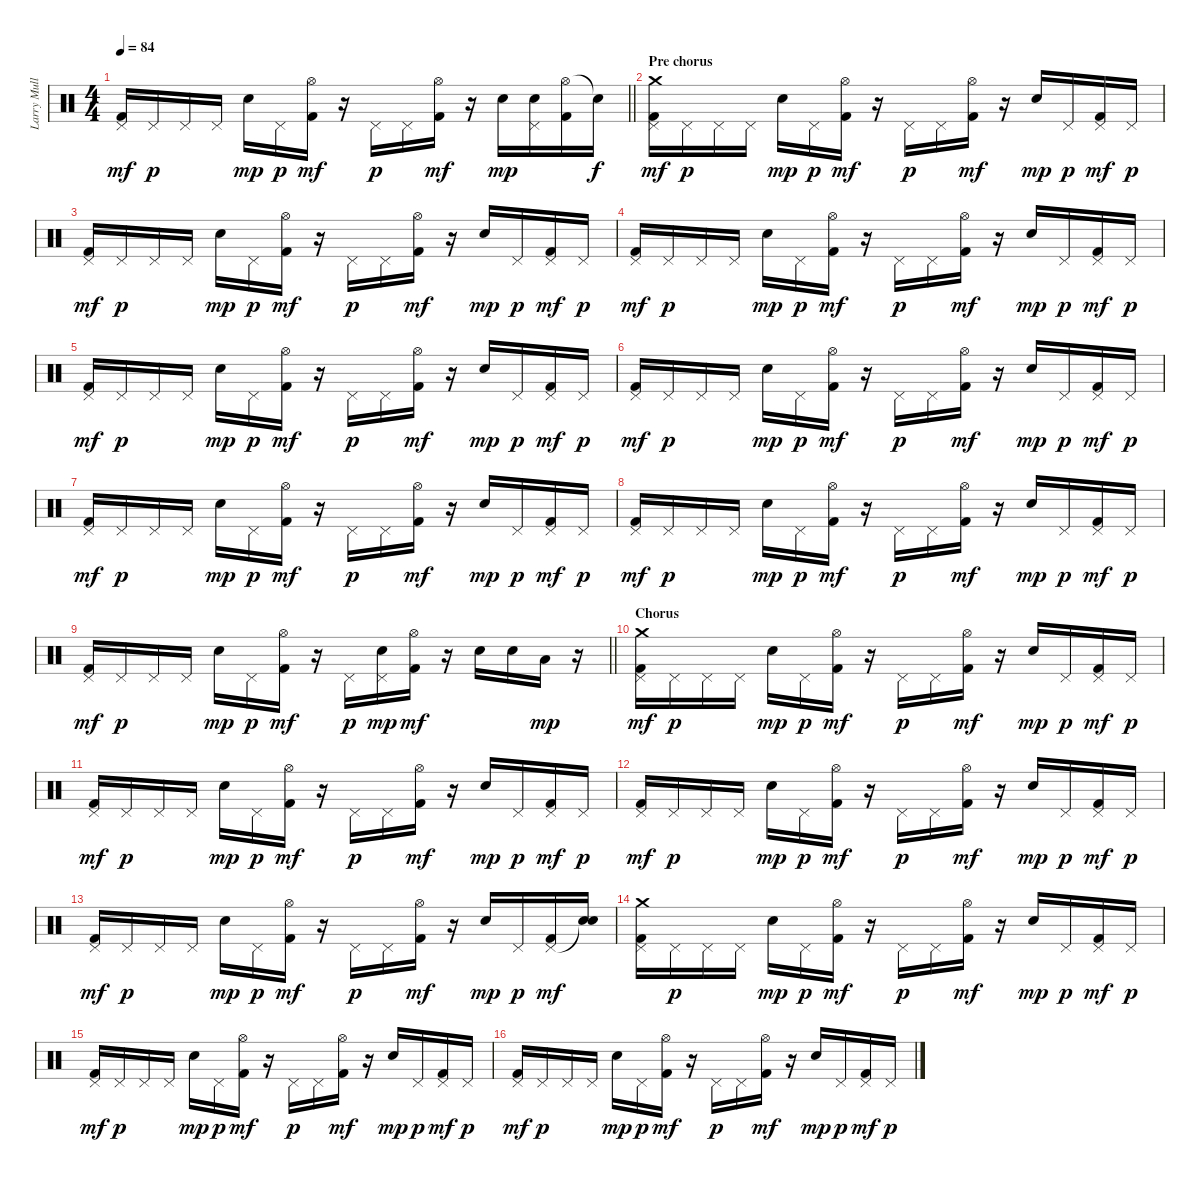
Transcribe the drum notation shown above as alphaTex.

\track ("Larry Mullen Jr." "Larry Mull") {instrument percussion}
\staff {score}
\articulation defaults
\ts (4 4)
\tempo 84
\clef neutral
\barLineRight lightlight
\ks c
("Pedal Hi-Hat (hit)" "Kick (hit) 2").16{dy mf} "Pedal Hi-Hat (hit)".16{dy p} "Pedal Hi-Hat (hit)".16 "Pedal Hi-Hat (hit)".16 "Electric Snare (hit)".16{dy mp} "Pedal Hi-Hat (hit)".16{dy p} ("Hi-Hat (open)" "Kick (hit) 2").16{dy mf} r.16 "Pedal Hi-Hat (hit)".16{dy p} "Pedal Hi-Hat (hit)".16 ("Hi-Hat (open)" "Kick (hit) 2").16{dy mf} r.16 "Electric Snare (hit)".16{dy mp} ("Pedal Hi-Hat (hit)" "Electric Snare (hit)").16 ("Hi-Hat (open)" "Kick (hit) 2").16 "Snare (hit)"{t}.16{dy f} |
\section ("" "Pre chorus")
("Pedal Hi-Hat (hit)" "Crash medium (hit)" "Kick (hit) 2").16{dy mf} "Pedal Hi-Hat (hit)".16{dy p} "Pedal Hi-Hat (hit)".16 "Pedal Hi-Hat (hit)".16 "Electric Snare (hit)".16{dy mp} "Pedal Hi-Hat (hit)".16{dy p} ("Hi-Hat (open)" "Kick (hit) 2").16{dy mf} r.16 "Pedal Hi-Hat (hit)".16{dy p} "Pedal Hi-Hat (hit)".16 ("Hi-Hat (open)" "Kick (hit) 2").16{dy mf} r.16 "Electric Snare (hit)".16{dy mp} "Pedal Hi-Hat (hit)".16{dy p} ("Pedal Hi-Hat (hit)" "Kick (hit) 2").16{dy mf} "Pedal Hi-Hat (hit)".16{dy p} |
("Pedal Hi-Hat (hit)" "Kick (hit) 2").16{dy mf} "Pedal Hi-Hat (hit)".16{dy p} "Pedal Hi-Hat (hit)".16 "Pedal Hi-Hat (hit)".16 "Electric Snare (hit)".16{dy mp} "Pedal Hi-Hat (hit)".16{dy p} ("Hi-Hat (open)" "Kick (hit) 2").16{dy mf} r.16 "Pedal Hi-Hat (hit)".16{dy p} "Pedal Hi-Hat (hit)".16 ("Hi-Hat (open)" "Kick (hit) 2").16{dy mf} r.16 "Electric Snare (hit)".16{dy mp} "Pedal Hi-Hat (hit)".16{dy p} ("Pedal Hi-Hat (hit)" "Kick (hit) 2").16{dy mf} "Pedal Hi-Hat (hit)".16{dy p} |
("Pedal Hi-Hat (hit)" "Kick (hit) 2").16{dy mf} "Pedal Hi-Hat (hit)".16{dy p} "Pedal Hi-Hat (hit)".16 "Pedal Hi-Hat (hit)".16 "Electric Snare (hit)".16{dy mp} "Pedal Hi-Hat (hit)".16{dy p} ("Hi-Hat (open)" "Kick (hit) 2").16{dy mf} r.16 "Pedal Hi-Hat (hit)".16{dy p} "Pedal Hi-Hat (hit)".16 ("Hi-Hat (open)" "Kick (hit) 2").16{dy mf} r.16 "Electric Snare (hit)".16{dy mp} "Pedal Hi-Hat (hit)".16{dy p} ("Pedal Hi-Hat (hit)" "Kick (hit) 2").16{dy mf} "Pedal Hi-Hat (hit)".16{dy p} |
("Pedal Hi-Hat (hit)" "Kick (hit) 2").16{dy mf} "Pedal Hi-Hat (hit)".16{dy p} "Pedal Hi-Hat (hit)".16 "Pedal Hi-Hat (hit)".16 "Electric Snare (hit)".16{dy mp} "Pedal Hi-Hat (hit)".16{dy p} ("Hi-Hat (open)" "Kick (hit) 2").16{dy mf} r.16 "Pedal Hi-Hat (hit)".16{dy p} "Pedal Hi-Hat (hit)".16 ("Hi-Hat (open)" "Kick (hit) 2").16{dy mf} r.16 "Electric Snare (hit)".16{dy mp} "Pedal Hi-Hat (hit)".16{dy p} ("Pedal Hi-Hat (hit)" "Kick (hit) 2").16{dy mf} "Pedal Hi-Hat (hit)".16{dy p} |
("Pedal Hi-Hat (hit)" "Kick (hit) 2").16{dy mf} "Pedal Hi-Hat (hit)".16{dy p} "Pedal Hi-Hat (hit)".16 "Pedal Hi-Hat (hit)".16 "Electric Snare (hit)".16{dy mp} "Pedal Hi-Hat (hit)".16{dy p} ("Hi-Hat (open)" "Kick (hit) 2").16{dy mf} r.16 "Pedal Hi-Hat (hit)".16{dy p} "Pedal Hi-Hat (hit)".16 ("Hi-Hat (open)" "Kick (hit) 2").16{dy mf} r.16 "Electric Snare (hit)".16{dy mp} "Pedal Hi-Hat (hit)".16{dy p} ("Pedal Hi-Hat (hit)" "Kick (hit) 2").16{dy mf} "Pedal Hi-Hat (hit)".16{dy p} |
("Pedal Hi-Hat (hit)" "Kick (hit) 2").16{dy mf} "Pedal Hi-Hat (hit)".16{dy p} "Pedal Hi-Hat (hit)".16 "Pedal Hi-Hat (hit)".16 "Electric Snare (hit)".16{dy mp} "Pedal Hi-Hat (hit)".16{dy p} ("Hi-Hat (open)" "Kick (hit) 2").16{dy mf} r.16 "Pedal Hi-Hat (hit)".16{dy p} "Pedal Hi-Hat (hit)".16 ("Hi-Hat (open)" "Kick (hit) 2").16{dy mf} r.16 "Electric Snare (hit)".16{dy mp} "Pedal Hi-Hat (hit)".16{dy p} ("Pedal Hi-Hat (hit)" "Kick (hit) 2").16{dy mf} "Pedal Hi-Hat (hit)".16{dy p} |
("Pedal Hi-Hat (hit)" "Kick (hit) 2").16{dy mf} "Pedal Hi-Hat (hit)".16{dy p} "Pedal Hi-Hat (hit)".16 "Pedal Hi-Hat (hit)".16 "Electric Snare (hit)".16{dy mp} "Pedal Hi-Hat (hit)".16{dy p} ("Hi-Hat (open)" "Kick (hit) 2").16{dy mf} r.16 "Pedal Hi-Hat (hit)".16{dy p} "Pedal Hi-Hat (hit)".16 ("Hi-Hat (open)" "Kick (hit) 2").16{dy mf} r.16 "Electric Snare (hit)".16{dy mp} "Pedal Hi-Hat (hit)".16{dy p} ("Pedal Hi-Hat (hit)" "Kick (hit) 2").16{dy mf} "Pedal Hi-Hat (hit)".16{dy p} |
\barLineRight lightlight
("Pedal Hi-Hat (hit)" "Kick (hit) 2").16{dy mf} "Pedal Hi-Hat (hit)".16{dy p} "Pedal Hi-Hat (hit)".16 "Pedal Hi-Hat (hit)".16 "Electric Snare (hit)".16{dy mp} "Pedal Hi-Hat (hit)".16{dy p} ("Hi-Hat (open)" "Kick (hit) 2").16{dy mf} r.16 "Pedal Hi-Hat (hit)".16{dy p} ("Pedal Hi-Hat (hit)" "Electric Snare (hit)").16{dy mp} ("Hi-Hat (open)" "Kick (hit) 2").16{dy mf} r.16 "Electric Snare (hit)".16 "Electric Snare (hit)".16 "Low Tom (hit)".16{dy mp} r.16 |
\section ("" "Chorus")
("Pedal Hi-Hat (hit)" "Crash medium (hit)" "Kick (hit) 2").16{dy mf} "Pedal Hi-Hat (hit)".16{dy p} "Pedal Hi-Hat (hit)".16 "Pedal Hi-Hat (hit)".16 "Electric Snare (hit)".16{dy mp} "Pedal Hi-Hat (hit)".16{dy p} ("Hi-Hat (open)" "Kick (hit) 2").16{dy mf} r.16 "Pedal Hi-Hat (hit)".16{dy p} "Pedal Hi-Hat (hit)".16 ("Hi-Hat (open)" "Kick (hit) 2").16{dy mf} r.16 "Electric Snare (hit)".16{dy mp} "Pedal Hi-Hat (hit)".16{dy p} ("Pedal Hi-Hat (hit)" "Kick (hit) 2").16{dy mf} "Pedal Hi-Hat (hit)".16{dy p} |
("Pedal Hi-Hat (hit)" "Kick (hit) 2").16{dy mf} "Pedal Hi-Hat (hit)".16{dy p} "Pedal Hi-Hat (hit)".16 "Pedal Hi-Hat (hit)".16 "Electric Snare (hit)".16{dy mp} "Pedal Hi-Hat (hit)".16{dy p} ("Hi-Hat (open)" "Kick (hit) 2").16{dy mf} r.16 "Pedal Hi-Hat (hit)".16{dy p} "Pedal Hi-Hat (hit)".16 ("Hi-Hat (open)" "Kick (hit) 2").16{dy mf} r.16 "Electric Snare (hit)".16{dy mp} "Pedal Hi-Hat (hit)".16{dy p} ("Pedal Hi-Hat (hit)" "Kick (hit) 2").16{dy mf} "Pedal Hi-Hat (hit)".16{dy p} |
("Pedal Hi-Hat (hit)" "Kick (hit) 2").16{dy mf} "Pedal Hi-Hat (hit)".16{dy p} "Pedal Hi-Hat (hit)".16 "Pedal Hi-Hat (hit)".16 "Electric Snare (hit)".16{dy mp} "Pedal Hi-Hat (hit)".16{dy p} ("Hi-Hat (open)" "Kick (hit) 2").16{dy mf} r.16 "Pedal Hi-Hat (hit)".16{dy p} "Pedal Hi-Hat (hit)".16 ("Hi-Hat (open)" "Kick (hit) 2").16{dy mf} r.16 "Electric Snare (hit)".16{dy mp} "Pedal Hi-Hat (hit)".16{dy p} ("Pedal Hi-Hat (hit)" "Kick (hit) 2").16{dy mf} "Pedal Hi-Hat (hit)".16{dy p} |
("Pedal Hi-Hat (hit)" "Kick (hit) 2").16{dy mf} "Pedal Hi-Hat (hit)".16{dy p} "Pedal Hi-Hat (hit)".16 "Pedal Hi-Hat (hit)".16 "Electric Snare (hit)".16{dy mp} "Pedal Hi-Hat (hit)".16{dy p} ("Hi-Hat (open)" "Kick (hit) 2").16{dy mf} r.16 "Pedal Hi-Hat (hit)".16{dy p} "Pedal Hi-Hat (hit)".16 ("Hi-Hat (open)" "Kick (hit) 2").16{dy mf} r.16 "Electric Snare (hit)".16{dy mp} "Pedal Hi-Hat (hit)".16{dy p} ("Pedal Hi-Hat (hit)" "Kick (hit) 2").16{dy mf} ("Snare (hit)"{t} "Electric Snare (hit)").16 |
("Pedal Hi-Hat (hit)" "Crash medium (hit)" "Kick (hit) 2").16 "Pedal Hi-Hat (hit)".16{dy p} "Pedal Hi-Hat (hit)".16 "Pedal Hi-Hat (hit)".16 "Electric Snare (hit)".16{dy mp} "Pedal Hi-Hat (hit)".16{dy p} ("Hi-Hat (open)" "Kick (hit) 2").16{dy mf} r.16 "Pedal Hi-Hat (hit)".16{dy p} "Pedal Hi-Hat (hit)".16 ("Hi-Hat (open)" "Kick (hit) 2").16{dy mf} r.16 "Electric Snare (hit)".16{dy mp} "Pedal Hi-Hat (hit)".16{dy p} ("Pedal Hi-Hat (hit)" "Kick (hit) 2").16{dy mf} "Pedal Hi-Hat (hit)".16{dy p} |
("Pedal Hi-Hat (hit)" "Kick (hit) 2").16{dy mf} "Pedal Hi-Hat (hit)".16{dy p} "Pedal Hi-Hat (hit)".16 "Pedal Hi-Hat (hit)".16 "Electric Snare (hit)".16{dy mp} "Pedal Hi-Hat (hit)".16{dy p} ("Hi-Hat (open)" "Kick (hit) 2").16{dy mf} r.16 "Pedal Hi-Hat (hit)".16{dy p} "Pedal Hi-Hat (hit)".16 ("Hi-Hat (open)" "Kick (hit) 2").16{dy mf} r.16 "Electric Snare (hit)".16{dy mp} "Pedal Hi-Hat (hit)".16{dy p} ("Pedal Hi-Hat (hit)" "Kick (hit) 2").16{dy mf} "Pedal Hi-Hat (hit)".16{dy p} |
("Pedal Hi-Hat (hit)" "Kick (hit) 2").16{dy mf} "Pedal Hi-Hat (hit)".16{dy p} "Pedal Hi-Hat (hit)".16 "Pedal Hi-Hat (hit)".16 "Electric Snare (hit)".16{dy mp} "Pedal Hi-Hat (hit)".16{dy p} ("Hi-Hat (open)" "Kick (hit) 2").16{dy mf} r.16 "Pedal Hi-Hat (hit)".16{dy p} "Pedal Hi-Hat (hit)".16 ("Hi-Hat (open)" "Kick (hit) 2").16{dy mf} r.16 "Electric Snare (hit)".16{dy mp} "Pedal Hi-Hat (hit)".16{dy p} ("Pedal Hi-Hat (hit)" "Kick (hit) 2").16{dy mf} "Pedal Hi-Hat (hit)".16{dy p}
